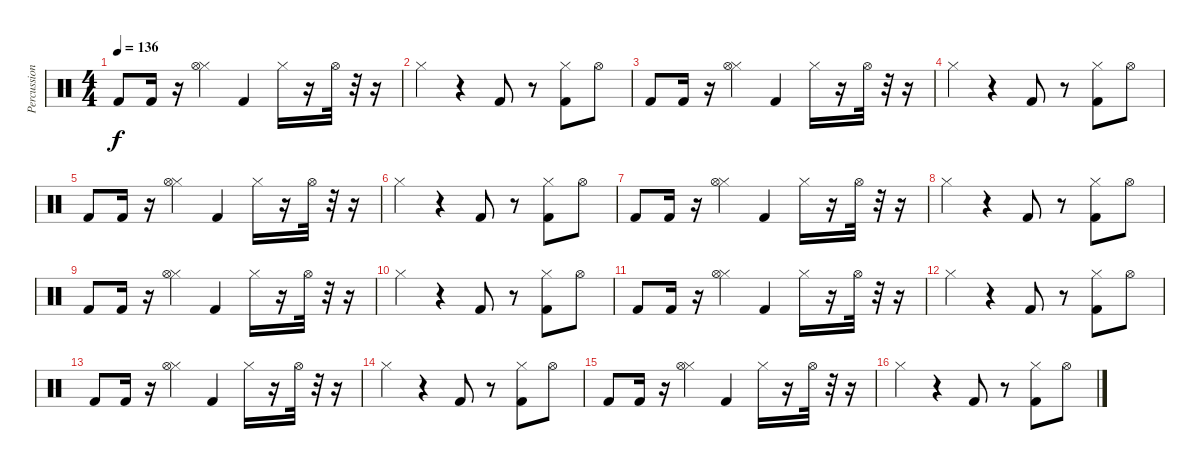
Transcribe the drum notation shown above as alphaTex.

\track ("Percussion" "Percussion") {instrument percussion}
\staff {score}
\articulation defaults
\ts (4 4)
\tempo 136
\clef neutral
\ks c "Kick (hit) 2".8{dy f} "Kick (hit) 2".16
r.16 ("Hi-Hat (closed)" "Hi-Hat (open)").4 "Kick (hit) 2".4 "Hi-Hat (closed)".16 r.16 "Hi-Hat (open)".32 r.32 r.16 |
"Hi-Hat (closed)".4 r.4 "Kick (hit) 2".8 r.8 ("Hi-Hat (closed)" "Kick (hit) 2").8 "Hi-Hat (open)".8 |
"Kick (hit) 2".8 "Kick (hit) 2".16 r.16 ("Hi-Hat (closed)" "Hi-Hat (open)").4 "Kick (hit) 2".4 "Hi-Hat (closed)".16 r.16 "Hi-Hat (open)".32 r.32 r.16 |
"Hi-Hat (closed)".4 r.4 "Kick (hit) 2".8 r.8 ("Hi-Hat (closed)" "Kick (hit) 2").8 "Hi-Hat (open)".8 |
"Kick (hit) 2".8 "Kick (hit) 2".16 r.16 ("Hi-Hat (closed)" "Hi-Hat (open)").4 "Kick (hit) 2".4 "Hi-Hat (closed)".16 r.16 "Hi-Hat (open)".32 r.32 r.16 |
"Hi-Hat (closed)".4 r.4 "Kick (hit) 2".8 r.8 ("Hi-Hat (closed)" "Kick (hit) 2").8 "Hi-Hat (open)".8 |
"Kick (hit) 2".8 "Kick (hit) 2".16 r.16 ("Hi-Hat (closed)" "Hi-Hat (open)").4 "Kick (hit) 2".4 "Hi-Hat (closed)".16 r.16 "Hi-Hat (open)".32 r.32 r.16 |
"Hi-Hat (closed)".4 r.4 "Kick (hit) 2".8 r.8 ("Hi-Hat (closed)" "Kick (hit) 2").8 "Hi-Hat (open)".8 |
"Kick (hit) 2".8 "Kick (hit) 2".16 r.16 ("Hi-Hat (closed)" "Hi-Hat (open)").4 "Kick (hit) 2".4 "Hi-Hat (closed)".16 r.16 "Hi-Hat (open)".32 r.32 r.16 |
"Hi-Hat (closed)".4 r.4 "Kick (hit) 2".8 r.8 ("Hi-Hat (closed)" "Kick (hit) 2").8 "Hi-Hat (open)".8 |
"Kick (hit) 2".8 "Kick (hit) 2".16 r.16 ("Hi-Hat (closed)" "Hi-Hat (open)").4 "Kick (hit) 2".4 "Hi-Hat (closed)".16 r.16 "Hi-Hat (open)".32 r.32 r.16 |
"Hi-Hat (closed)".4 r.4 "Kick (hit) 2".8 r.8 ("Hi-Hat (closed)" "Kick (hit) 2").8 "Hi-Hat (open)".8 |
"Kick (hit) 2".8 "Kick (hit) 2".16 r.16 ("Hi-Hat (closed)" "Hi-Hat (open)").4 "Kick (hit) 2".4 "Hi-Hat (closed)".16 r.16 "Hi-Hat (open)".32 r.32 r.16 |
"Hi-Hat (closed)".4 r.4 "Kick (hit) 2".8 r.8 ("Hi-Hat (closed)" "Kick (hit) 2").8 "Hi-Hat (open)".8 |
"Kick (hit) 2".8 "Kick (hit) 2".16 r.16 ("Hi-Hat (closed)" "Hi-Hat (open)").4 "Kick (hit) 2".4 "Hi-Hat (closed)".16 r.16 "Hi-Hat (open)".32 r.32 r.16 |
"Hi-Hat (closed)".4 r.4 "Kick (hit) 2".8 r.8 ("Hi-Hat (closed)" "Kick (hit) 2").8 "Hi-Hat (open)".8
